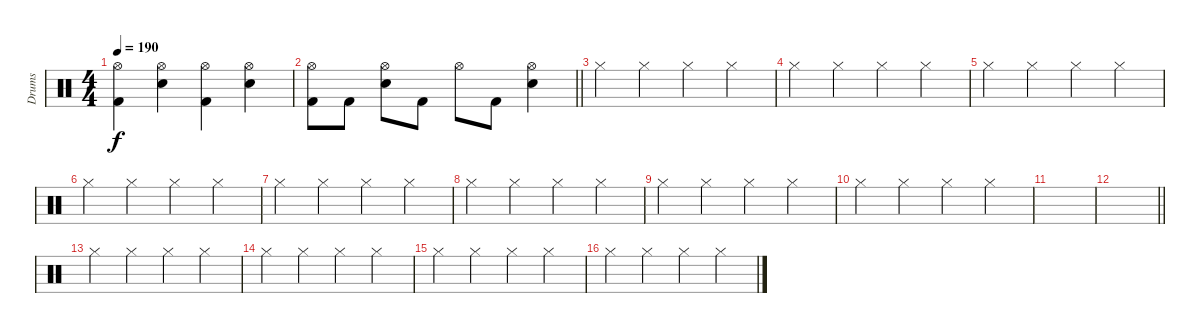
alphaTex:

\track ("Drums" "Drums") {instrument percussion}
\staff {score}
\articulation defaults
\ts (4 4)
\tempo 190
\clef neutral
\ks c
("Hi-Hat (open)" "Kick (hit) 2").4{dy f} ("Hi-Hat (open)" "Electric Snare (hit)").4 ("Hi-Hat (open)" "Kick (hit) 2").4 ("Hi-Hat (open)" "Electric Snare (hit)").4 |
\barLineRight lightlight
("Hi-Hat (open)" "Kick (hit) 2").8 "Kick (hit) 2".8 ("Hi-Hat (open)" "Electric Snare (hit)").8 "Kick (hit) 2".8 "Hi-Hat (open)".8 "Kick (hit) 2".8 ("Hi-Hat (open)" "Electric Snare (hit)").4 |
"Hi-Hat (closed)".4 "Hi-Hat (closed)".4 "Hi-Hat (closed)".4 "Hi-Hat (closed)".4 |
"Hi-Hat (closed)".4 "Hi-Hat (closed)".4 "Hi-Hat (closed)".4 "Hi-Hat (closed)".4 |
"Hi-Hat (closed)".4 "Hi-Hat (closed)".4 "Hi-Hat (closed)".4 "Hi-Hat (closed)".4 |
"Hi-Hat (closed)".4 "Hi-Hat (closed)".4 "Hi-Hat (closed)".4 "Hi-Hat (closed)".4 |
"Hi-Hat (closed)".4 "Hi-Hat (closed)".4 "Hi-Hat (closed)".4 "Hi-Hat (closed)".4 |
"Hi-Hat (closed)".4 "Hi-Hat (closed)".4 "Hi-Hat (closed)".4 "Hi-Hat (closed)".4 |
"Hi-Hat (closed)".4 "Hi-Hat (closed)".4 "Hi-Hat (closed)".4 "Hi-Hat (closed)".4 |
"Hi-Hat (closed)".4 "Hi-Hat (closed)".4 "Hi-Hat (closed)".4 "Hi-Hat (closed)".4 |
|
\barLineRight lightlight
|
"Hi-Hat (closed)".4 "Hi-Hat (closed)".4 "Hi-Hat (closed)".4 "Hi-Hat (closed)".4 |
"Hi-Hat (closed)".4 "Hi-Hat (closed)".4 "Hi-Hat (closed)".4 "Hi-Hat (closed)".4 |
"Hi-Hat (closed)".4 "Hi-Hat (closed)".4 "Hi-Hat (closed)".4 "Hi-Hat (closed)".4 |
"Hi-Hat (closed)".4 "Hi-Hat (closed)".4 "Hi-Hat (closed)".4 "Hi-Hat (closed)".4
